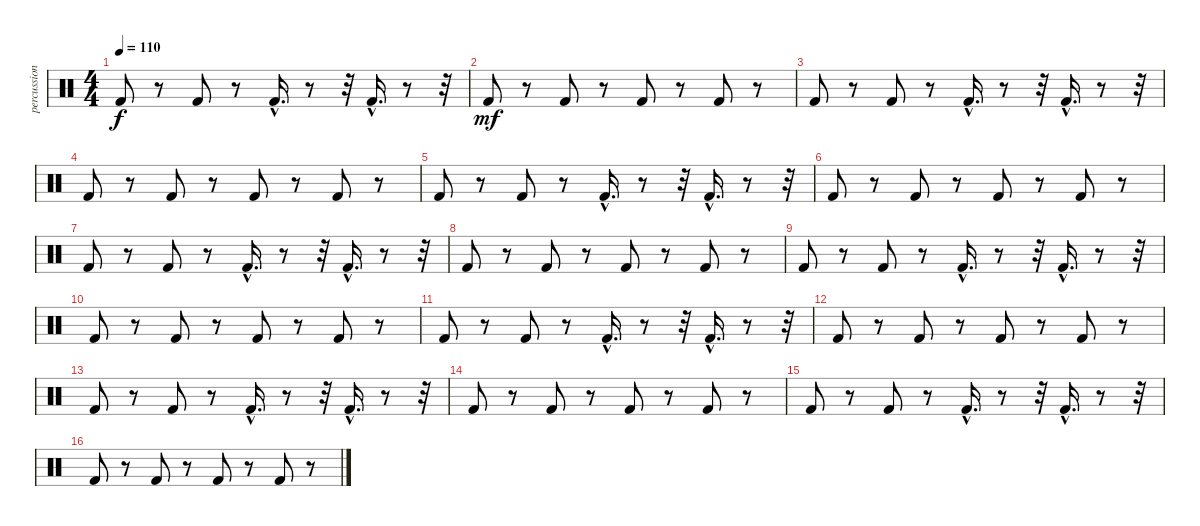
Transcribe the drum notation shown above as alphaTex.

\track ("percussions 1" "percussion") {instrument percussion}
\staff {score}
\articulation defaults
\ts (4 4)
\tempo 110
\clef neutral
\ks c "Kick (hit) 2".8{dy f}
r.8 "Kick (hit) 2".8 r.8 "Kick (hit) 2"{hac}.16{d} r.8 r.32 "Kick (hit) 2"{hac}.16{d} r.8 r.32 |
"Kick (hit) 2".8{dy mf} r.8 "Kick (hit) 2".8 r.8 "Kick (hit) 2".8 r.8 "Kick (hit) 2".8 r.8 |
"Kick (hit) 2".8 r.8 "Kick (hit) 2".8 r.8 "Kick (hit) 2"{hac}.16{d} r.8 r.32 "Kick (hit) 2"{hac}.16{d} r.8 r.32 |
"Kick (hit) 2".8 r.8 "Kick (hit) 2".8 r.8 "Kick (hit) 2".8 r.8 "Kick (hit) 2".8 r.8 |
"Kick (hit) 2".8 r.8 "Kick (hit) 2".8 r.8 "Kick (hit) 2"{hac}.16{d} r.8 r.32 "Kick (hit) 2"{hac}.16{d} r.8 r.32 |
"Kick (hit) 2".8 r.8 "Kick (hit) 2".8 r.8 "Kick (hit) 2".8 r.8 "Kick (hit) 2".8 r.8 |
"Kick (hit) 2".8 r.8 "Kick (hit) 2".8 r.8 "Kick (hit) 2"{hac}.16{d} r.8 r.32 "Kick (hit) 2"{hac}.16{d} r.8 r.32 |
"Kick (hit) 2".8 r.8 "Kick (hit) 2".8 r.8 "Kick (hit) 2".8 r.8 "Kick (hit) 2".8 r.8 |
"Kick (hit) 2".8 r.8 "Kick (hit) 2".8 r.8 "Kick (hit) 2"{hac}.16{d} r.8 r.32 "Kick (hit) 2"{hac}.16{d} r.8 r.32 |
"Kick (hit) 2".8 r.8 "Kick (hit) 2".8 r.8 "Kick (hit) 2".8 r.8 "Kick (hit) 2".8 r.8 |
"Kick (hit) 2".8 r.8 "Kick (hit) 2".8 r.8 "Kick (hit) 2"{hac}.16{d} r.8 r.32 "Kick (hit) 2"{hac}.16{d} r.8 r.32 |
"Kick (hit) 2".8 r.8 "Kick (hit) 2".8 r.8 "Kick (hit) 2".8 r.8 "Kick (hit) 2".8 r.8 |
"Kick (hit) 2".8 r.8 "Kick (hit) 2".8 r.8 "Kick (hit) 2"{hac}.16{d} r.8 r.32 "Kick (hit) 2"{hac}.16{d} r.8 r.32 |
"Kick (hit) 2".8 r.8 "Kick (hit) 2".8 r.8 "Kick (hit) 2".8 r.8 "Kick (hit) 2".8 r.8 |
"Kick (hit) 2".8 r.8 "Kick (hit) 2".8 r.8 "Kick (hit) 2"{hac}.16{d} r.8 r.32 "Kick (hit) 2"{hac}.16{d} r.8 r.32 |
"Kick (hit) 2".8 r.8 "Kick (hit) 2".8 r.8 "Kick (hit) 2".8 r.8 "Kick (hit) 2".8 r.8
